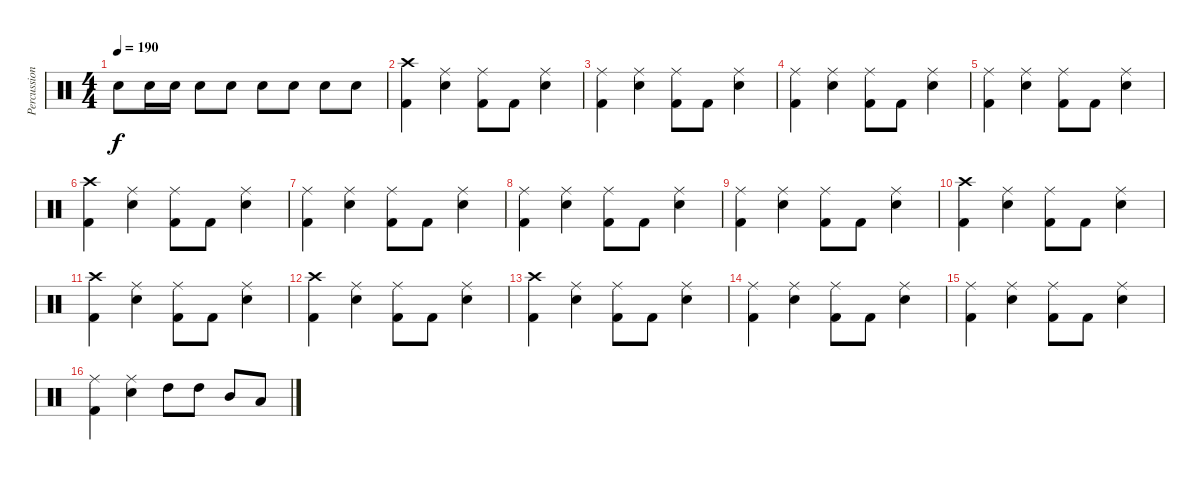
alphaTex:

\track ("Percussion" "Percussion") {instrument percussion}
\staff {score}
\articulation defaults
\ts (4 4)
\tempo 190
\clef neutral
\ks c "Electric Snare (hit)".8{dy f} "Electric Snare (hit)".16 "Electric Snare (hit)".16 "Electric Snare (hit)".8 "Electric Snare (hit)".8 "Electric Snare (hit)".8 "Electric Snare (hit)".8 "Electric Snare (hit)".8 "Electric Snare (hit)".8
|
("Crash high (hit)" "Kick (hit) 2").4 ("Ride (middle)" "Electric Snare (hit)").4 ("Ride (middle)" "Kick (hit) 2").8 "Kick (hit) 2".8 ("Ride (middle)" "Electric Snare (hit)").4 |
("Ride (middle)" "Kick (hit) 2").4 ("Ride (middle)" "Electric Snare (hit)").4 ("Ride (middle)" "Kick (hit) 2").8 "Kick (hit) 2".8 ("Ride (middle)" "Electric Snare (hit)").4 |
("Ride (middle)" "Kick (hit) 2").4 ("Ride (middle)" "Electric Snare (hit)").4 ("Ride (middle)" "Kick (hit) 2").8 "Kick (hit) 2".8 ("Ride (middle)" "Electric Snare (hit)").4 |
("Ride (middle)" "Kick (hit) 2").4 ("Ride (middle)" "Electric Snare (hit)").4 ("Ride (middle)" "Kick (hit) 2").8 "Kick (hit) 2".8 ("Ride (middle)" "Electric Snare (hit)").4 |
("Crash high (hit)" "Kick (hit) 2").4 ("Ride (middle)" "Electric Snare (hit)").4 ("Ride (middle)" "Kick (hit) 2").8 "Kick (hit) 2".8 ("Ride (middle)" "Electric Snare (hit)").4 |
("Ride (middle)" "Kick (hit) 2").4 ("Ride (middle)" "Electric Snare (hit)").4 ("Ride (middle)" "Kick (hit) 2").8 "Kick (hit) 2".8 ("Ride (middle)" "Electric Snare (hit)").4 |
("Ride (middle)" "Kick (hit) 2").4 ("Ride (middle)" "Electric Snare (hit)").4 ("Ride (middle)" "Kick (hit) 2").8 "Kick (hit) 2".8 ("Ride (middle)" "Electric Snare (hit)").4 |
("Ride (middle)" "Kick (hit) 2").4 ("Ride (middle)" "Electric Snare (hit)").4 ("Ride (middle)" "Kick (hit) 2").8 "Kick (hit) 2".8 ("Ride (middle)" "Electric Snare (hit)").4 |
("Crash high (hit)" "Kick (hit) 2").4 ("Ride (middle)" "Electric Snare (hit)").4 ("Ride (middle)" "Kick (hit) 2").8 "Kick (hit) 2".8 ("Ride (middle)" "Electric Snare (hit)").4 |
("Crash high (hit)" "Kick (hit) 2").4 ("Ride (middle)" "Electric Snare (hit)").4 ("Ride (middle)" "Kick (hit) 2").8 "Kick (hit) 2".8 ("Ride (middle)" "Electric Snare (hit)").4 |
("Crash high (hit)" "Kick (hit) 2").4 ("Ride (middle)" "Electric Snare (hit)").4 ("Ride (middle)" "Kick (hit) 2").8 "Kick (hit) 2".8 ("Ride (middle)" "Electric Snare (hit)").4 |
("Crash high (hit)" "Kick (hit) 2").4 ("Ride (middle)" "Electric Snare (hit)").4 ("Ride (middle)" "Kick (hit) 2").8 "Kick (hit) 2".8 ("Ride (middle)" "Electric Snare (hit)").4 |
("Ride (middle)" "Kick (hit) 2").4 ("Ride (middle)" "Electric Snare (hit)").4 ("Ride (middle)" "Kick (hit) 2").8 "Kick (hit) 2".8 ("Ride (middle)" "Electric Snare (hit)").4 |
("Ride (middle)" "Kick (hit) 2").4 ("Ride (middle)" "Electric Snare (hit)").4 ("Ride (middle)" "Kick (hit) 2").8 "Kick (hit) 2".8 ("Ride (middle)" "Electric Snare (hit)").4 |
("Ride (middle)" "Kick (hit) 2").4 ("Ride (middle)" "Electric Snare (hit)").4 "High Tom (hit)".8 "High Tom (hit)".8 "Mid Tom (hit)".8 "Low Tom (hit)".8
